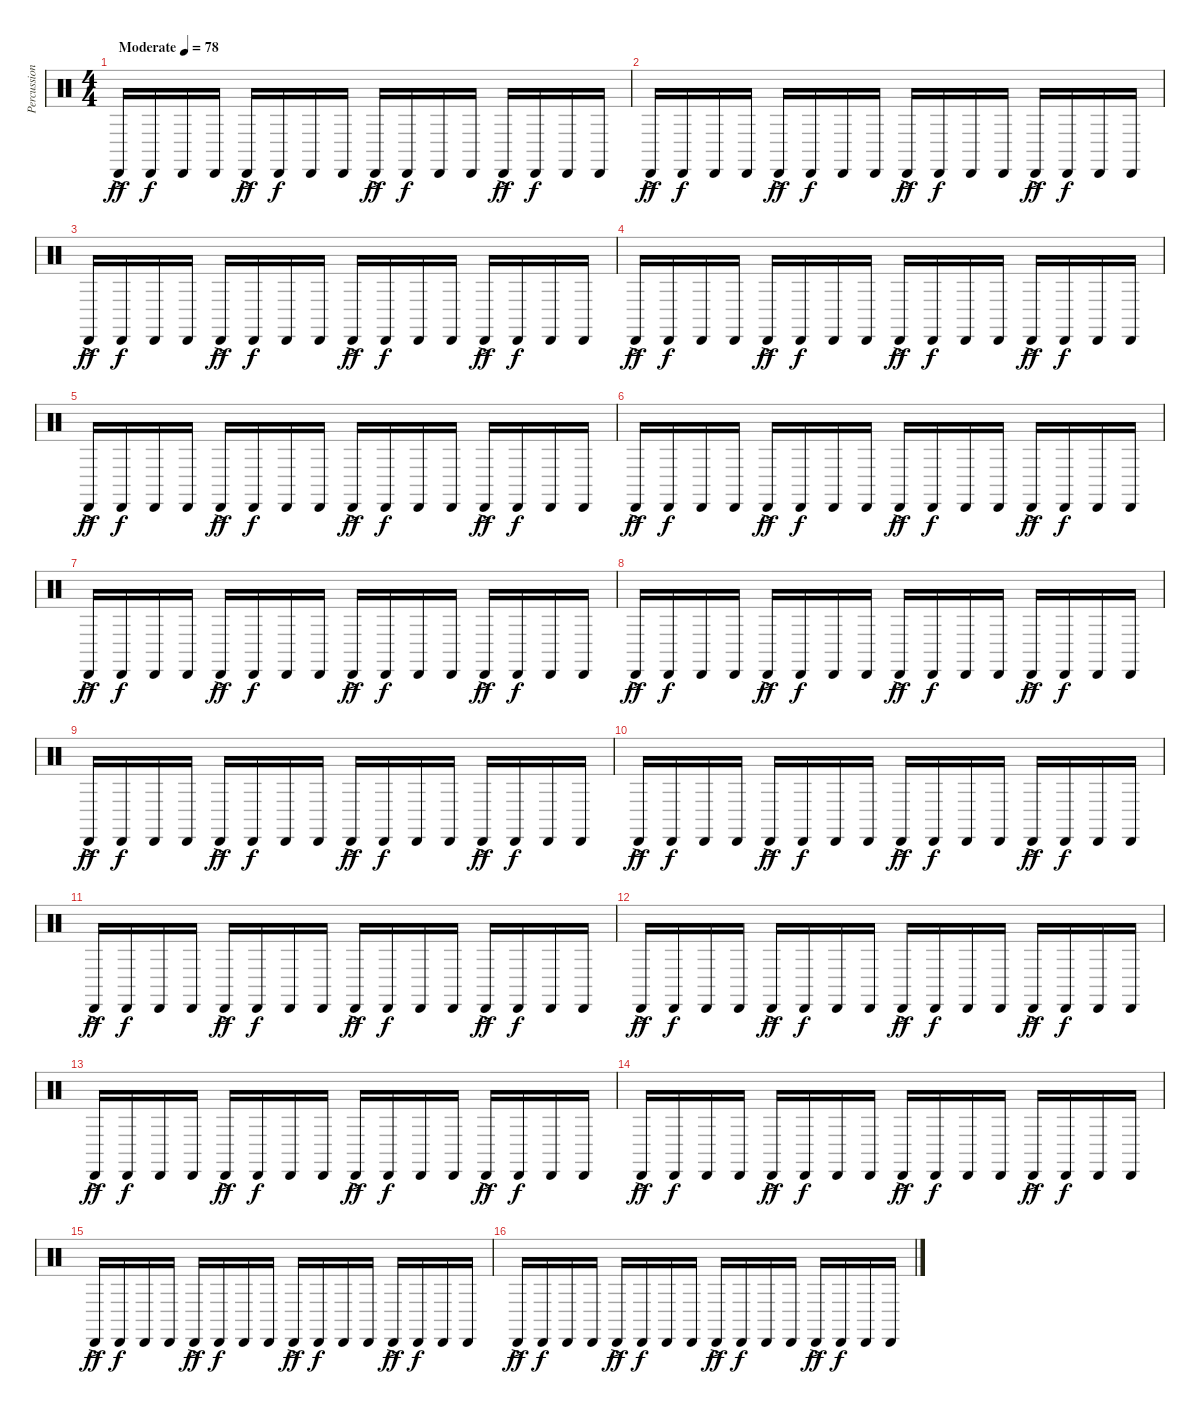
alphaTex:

\track ("Percussion" "Percussion") {instrument percussion}
\staff {score}
\articulation defaults
\ts (4 4)
\tempo (78 "Moderate")
\clef neutral
\ks c "Cabasa (hit)"{ac}.16{dy ff} "Cabasa (hit)".16{dy f} "Cabasa (hit)".16 "Cabasa (hit)".16 "Cabasa (hit)"{ac}.16{dy ff} "Cabasa (hit)".16{dy f} "Cabasa (hit)".16 "Cabasa (hit)".16 "Cabasa (hit)"{ac}.16{dy ff} "Cabasa (hit)".16{dy f} "Cabasa (hit)".16 "Cabasa (hit)".16 "Cabasa (hit)"{ac}.16{dy ff} "Cabasa (hit)".16{dy f} "Cabasa (hit)".16 "Cabasa (hit)".16
|
"Cabasa (hit)"{ac}.16{dy ff} "Cabasa (hit)".16{dy f} "Cabasa (hit)".16 "Cabasa (hit)".16 "Cabasa (hit)"{ac}.16{dy ff} "Cabasa (hit)".16{dy f} "Cabasa (hit)".16 "Cabasa (hit)".16 "Cabasa (hit)"{ac}.16{dy ff} "Cabasa (hit)".16{dy f} "Cabasa (hit)".16 "Cabasa (hit)".16 "Cabasa (hit)"{ac}.16{dy ff} "Cabasa (hit)".16{dy f} "Cabasa (hit)".16 "Cabasa (hit)".16 |
"Cabasa (hit)"{ac}.16{dy ff} "Cabasa (hit)".16{dy f} "Cabasa (hit)".16 "Cabasa (hit)".16 "Cabasa (hit)"{ac}.16{dy ff} "Cabasa (hit)".16{dy f} "Cabasa (hit)".16 "Cabasa (hit)".16 "Cabasa (hit)"{ac}.16{dy ff} "Cabasa (hit)".16{dy f} "Cabasa (hit)".16 "Cabasa (hit)".16 "Cabasa (hit)"{ac}.16{dy ff} "Cabasa (hit)".16{dy f} "Cabasa (hit)".16 "Cabasa (hit)".16 |
"Cabasa (hit)"{ac}.16{dy ff} "Cabasa (hit)".16{dy f} "Cabasa (hit)".16 "Cabasa (hit)".16 "Cabasa (hit)"{ac}.16{dy ff} "Cabasa (hit)".16{dy f} "Cabasa (hit)".16 "Cabasa (hit)".16 "Cabasa (hit)"{ac}.16{dy ff} "Cabasa (hit)".16{dy f} "Cabasa (hit)".16 "Cabasa (hit)".16 "Cabasa (hit)"{ac}.16{dy ff} "Cabasa (hit)".16{dy f} "Cabasa (hit)".16 "Cabasa (hit)".16 |
"Cabasa (hit)"{ac}.16{dy ff} "Cabasa (hit)".16{dy f} "Cabasa (hit)".16 "Cabasa (hit)".16 "Cabasa (hit)"{ac}.16{dy ff} "Cabasa (hit)".16{dy f} "Cabasa (hit)".16 "Cabasa (hit)".16 "Cabasa (hit)"{ac}.16{dy ff} "Cabasa (hit)".16{dy f} "Cabasa (hit)".16 "Cabasa (hit)".16 "Cabasa (hit)"{ac}.16{dy ff} "Cabasa (hit)".16{dy f} "Cabasa (hit)".16 "Cabasa (hit)".16 |
"Cabasa (hit)"{ac}.16{dy ff} "Cabasa (hit)".16{dy f} "Cabasa (hit)".16 "Cabasa (hit)".16 "Cabasa (hit)"{ac}.16{dy ff} "Cabasa (hit)".16{dy f} "Cabasa (hit)".16 "Cabasa (hit)".16 "Cabasa (hit)"{ac}.16{dy ff} "Cabasa (hit)".16{dy f} "Cabasa (hit)".16 "Cabasa (hit)".16 "Cabasa (hit)"{ac}.16{dy ff} "Cabasa (hit)".16{dy f} "Cabasa (hit)".16 "Cabasa (hit)".16 |
"Cabasa (hit)"{ac}.16{dy ff} "Cabasa (hit)".16{dy f} "Cabasa (hit)".16 "Cabasa (hit)".16 "Cabasa (hit)"{ac}.16{dy ff} "Cabasa (hit)".16{dy f} "Cabasa (hit)".16 "Cabasa (hit)".16 "Cabasa (hit)"{ac}.16{dy ff} "Cabasa (hit)".16{dy f} "Cabasa (hit)".16 "Cabasa (hit)".16 "Cabasa (hit)"{ac}.16{dy ff} "Cabasa (hit)".16{dy f} "Cabasa (hit)".16 "Cabasa (hit)".16 |
"Cabasa (hit)"{ac}.16{dy ff} "Cabasa (hit)".16{dy f} "Cabasa (hit)".16 "Cabasa (hit)".16 "Cabasa (hit)"{ac}.16{dy ff} "Cabasa (hit)".16{dy f} "Cabasa (hit)".16 "Cabasa (hit)".16 "Cabasa (hit)"{ac}.16{dy ff} "Cabasa (hit)".16{dy f} "Cabasa (hit)".16 "Cabasa (hit)".16 "Cabasa (hit)"{ac}.16{dy ff} "Cabasa (hit)".16{dy f} "Cabasa (hit)".16 "Cabasa (hit)".16 |
"Cabasa (hit)"{ac}.16{dy ff} "Cabasa (hit)".16{dy f} "Cabasa (hit)".16 "Cabasa (hit)".16 "Cabasa (hit)"{ac}.16{dy ff} "Cabasa (hit)".16{dy f} "Cabasa (hit)".16 "Cabasa (hit)".16 "Cabasa (hit)"{ac}.16{dy ff} "Cabasa (hit)".16{dy f} "Cabasa (hit)".16 "Cabasa (hit)".16 "Cabasa (hit)"{ac}.16{dy ff} "Cabasa (hit)".16{dy f} "Cabasa (hit)".16 "Cabasa (hit)".16 |
"Cabasa (hit)"{ac}.16{dy ff} "Cabasa (hit)".16{dy f} "Cabasa (hit)".16 "Cabasa (hit)".16 "Cabasa (hit)"{ac}.16{dy ff} "Cabasa (hit)".16{dy f} "Cabasa (hit)".16 "Cabasa (hit)".16 "Cabasa (hit)"{ac}.16{dy ff} "Cabasa (hit)".16{dy f} "Cabasa (hit)".16 "Cabasa (hit)".16 "Cabasa (hit)"{ac}.16{dy ff} "Cabasa (hit)".16{dy f} "Cabasa (hit)".16 "Cabasa (hit)".16 |
"Cabasa (hit)"{ac}.16{dy ff} "Cabasa (hit)".16{dy f} "Cabasa (hit)".16 "Cabasa (hit)".16 "Cabasa (hit)"{ac}.16{dy ff} "Cabasa (hit)".16{dy f} "Cabasa (hit)".16 "Cabasa (hit)".16 "Cabasa (hit)"{ac}.16{dy ff} "Cabasa (hit)".16{dy f} "Cabasa (hit)".16 "Cabasa (hit)".16 "Cabasa (hit)"{ac}.16{dy ff} "Cabasa (hit)".16{dy f} "Cabasa (hit)".16 "Cabasa (hit)".16 |
"Cabasa (hit)"{ac}.16{dy ff} "Cabasa (hit)".16{dy f} "Cabasa (hit)".16 "Cabasa (hit)".16 "Cabasa (hit)"{ac}.16{dy ff} "Cabasa (hit)".16{dy f} "Cabasa (hit)".16 "Cabasa (hit)".16 "Cabasa (hit)"{ac}.16{dy ff} "Cabasa (hit)".16{dy f} "Cabasa (hit)".16 "Cabasa (hit)".16 "Cabasa (hit)"{ac}.16{dy ff} "Cabasa (hit)".16{dy f} "Cabasa (hit)".16 "Cabasa (hit)".16 |
"Cabasa (hit)"{ac}.16{dy ff} "Cabasa (hit)".16{dy f} "Cabasa (hit)".16 "Cabasa (hit)".16 "Cabasa (hit)"{ac}.16{dy ff} "Cabasa (hit)".16{dy f} "Cabasa (hit)".16 "Cabasa (hit)".16 "Cabasa (hit)"{ac}.16{dy ff} "Cabasa (hit)".16{dy f} "Cabasa (hit)".16 "Cabasa (hit)".16 "Cabasa (hit)"{ac}.16{dy ff} "Cabasa (hit)".16{dy f} "Cabasa (hit)".16 "Cabasa (hit)".16 |
"Cabasa (hit)"{ac}.16{dy ff} "Cabasa (hit)".16{dy f} "Cabasa (hit)".16 "Cabasa (hit)".16 "Cabasa (hit)"{ac}.16{dy ff} "Cabasa (hit)".16{dy f} "Cabasa (hit)".16 "Cabasa (hit)".16 "Cabasa (hit)"{ac}.16{dy ff} "Cabasa (hit)".16{dy f} "Cabasa (hit)".16 "Cabasa (hit)".16 "Cabasa (hit)"{ac}.16{dy ff} "Cabasa (hit)".16{dy f} "Cabasa (hit)".16 "Cabasa (hit)".16 |
"Cabasa (hit)"{ac}.16{dy ff} "Cabasa (hit)".16{dy f} "Cabasa (hit)".16 "Cabasa (hit)".16 "Cabasa (hit)"{ac}.16{dy ff} "Cabasa (hit)".16{dy f} "Cabasa (hit)".16 "Cabasa (hit)".16 "Cabasa (hit)"{ac}.16{dy ff} "Cabasa (hit)".16{dy f} "Cabasa (hit)".16 "Cabasa (hit)".16 "Cabasa (hit)"{ac}.16{dy ff} "Cabasa (hit)".16{dy f} "Cabasa (hit)".16 "Cabasa (hit)".16 |
"Cabasa (hit)"{ac}.16{dy ff} "Cabasa (hit)".16{dy f} "Cabasa (hit)".16 "Cabasa (hit)".16 "Cabasa (hit)"{ac}.16{dy ff} "Cabasa (hit)".16{dy f} "Cabasa (hit)".16 "Cabasa (hit)".16 "Cabasa (hit)"{ac}.16{dy ff} "Cabasa (hit)".16{dy f} "Cabasa (hit)".16 "Cabasa (hit)".16 "Cabasa (hit)"{ac}.16{dy ff} "Cabasa (hit)".16{dy f} "Cabasa (hit)".16 "Cabasa (hit)".16
